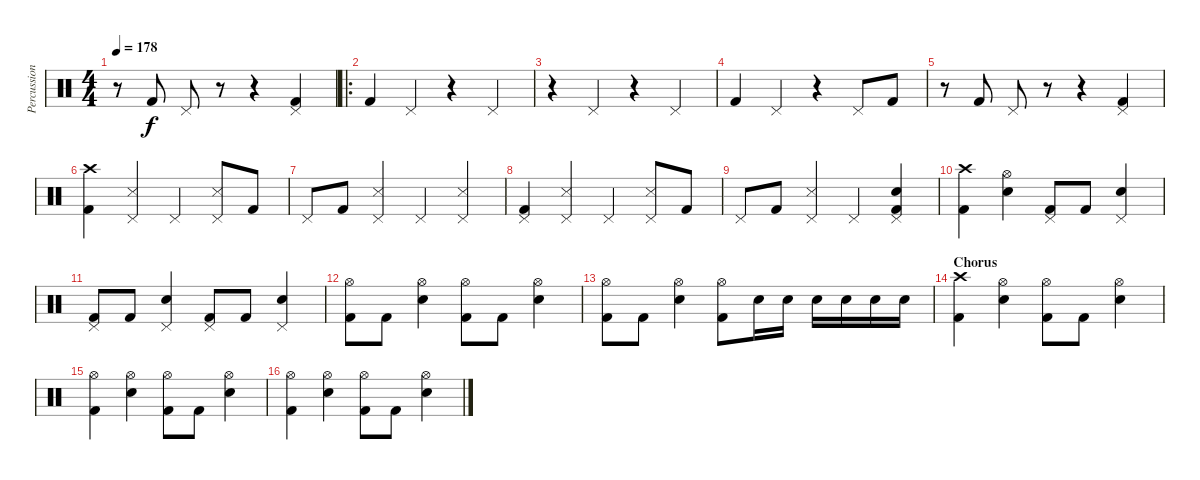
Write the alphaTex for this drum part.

\track ("Percussion" "Percussion") {instrument percussion}
\staff {score}
\articulation defaults
\ts (4 4)
\tempo 178
\clef neutral
\ks c
r.8{dy f} "Kick (hit) 2".8 "Pedal Hi-Hat (hit)".8 r.8 r.4 ("Pedal Hi-Hat (hit)" "Kick (hit) 2").4 |
\ro "Kick (hit) 2".4 "Pedal Hi-Hat (hit)".4
r.4 "Pedal Hi-Hat (hit)".4 |
r.4 "Pedal Hi-Hat (hit)".4 r.4 "Pedal Hi-Hat (hit)".4 |
"Kick (hit) 2".4 "Pedal Hi-Hat (hit)".4 r.4 "Pedal Hi-Hat (hit)".8 "Kick (hit) 2".8 |
r.8 "Kick (hit) 2".8 "Pedal Hi-Hat (hit)".8 r.8 r.4 ("Pedal Hi-Hat (hit)" "Kick (hit) 2").4 |
("Crash high (hit)" "Kick (hit) 2").4 ("Pedal Hi-Hat (hit)" "Snare (side stick) 3").4 "Pedal Hi-Hat (hit)".4 ("Pedal Hi-Hat (hit)" "Snare (side stick) 3").8 "Kick (hit) 2".8 |
"Pedal Hi-Hat (hit)".8 "Kick (hit) 2".8 ("Pedal Hi-Hat (hit)" "Snare (side stick) 3").4 "Pedal Hi-Hat (hit)".4 ("Pedal Hi-Hat (hit)" "Snare (side stick) 3").4 |
("Pedal Hi-Hat (hit)" "Kick (hit) 2").4 ("Pedal Hi-Hat (hit)" "Snare (side stick) 3").4 "Pedal Hi-Hat (hit)".4 ("Pedal Hi-Hat (hit)" "Snare (side stick) 3").8 "Kick (hit) 2".8 |
"Pedal Hi-Hat (hit)".8 "Kick (hit) 2".8 ("Pedal Hi-Hat (hit)" "Snare (side stick) 3").4 "Pedal Hi-Hat (hit)".4 ("Pedal Hi-Hat (hit)" "Snare (hit) 2" "Kick (hit) 2").4 |
("Crash high (hit)" "Kick (hit) 2").4 ("Hi-Hat (open)" "Snare (hit) 2").4 ("Pedal Hi-Hat (hit)" "Kick (hit) 2").8 "Kick (hit) 2".8 ("Pedal Hi-Hat (hit)" "Snare (hit) 2").4 |
("Pedal Hi-Hat (hit)" "Kick (hit) 2").8 "Kick (hit) 2".8 ("Pedal Hi-Hat (hit)" "Snare (hit) 2").4 ("Pedal Hi-Hat (hit)" "Kick (hit) 2").8 "Kick (hit) 2".8 ("Pedal Hi-Hat (hit)" "Snare (hit) 2").4 |
("Hi-Hat (open)" "Kick (hit) 2").8 "Kick (hit) 2".8 ("Hi-Hat (open)" "Snare (hit) 2").4 ("Hi-Hat (open)" "Kick (hit) 2").8 "Kick (hit) 2".8 ("Hi-Hat (open)" "Snare (hit) 2").4 |
("Hi-Hat (open)" "Kick (hit) 2").8 "Kick (hit) 2".8 ("Hi-Hat (open)" "Snare (hit) 2").4 ("Hi-Hat (open)" "Kick (hit) 2").8 "Snare (hit) 2".16 "Snare (hit) 2".16 "Snare (hit) 2".16 "Snare (hit) 2".16 "Snare (hit) 2".16 "Snare (hit) 2".16 |
\section ("" "Chorus")
("Crash high (hit)" "Kick (hit) 2").4 ("Hi-Hat (open)" "Snare (hit) 2").4 ("Hi-Hat (open)" "Kick (hit) 2").8 "Kick (hit) 2".8 ("Hi-Hat (open)" "Snare (hit) 2").4 |
("Hi-Hat (open)" "Kick (hit) 2").4 ("Hi-Hat (open)" "Snare (hit) 2").4 ("Hi-Hat (open)" "Kick (hit) 2").8 "Kick (hit) 2".8 ("Hi-Hat (open)" "Snare (hit) 2").4 |
("Hi-Hat (open)" "Kick (hit) 2").4 ("Hi-Hat (open)" "Snare (hit) 2").4 ("Hi-Hat (open)" "Kick (hit) 2").8 "Kick (hit) 2".8 ("Hi-Hat (open)" "Snare (hit) 2").4
